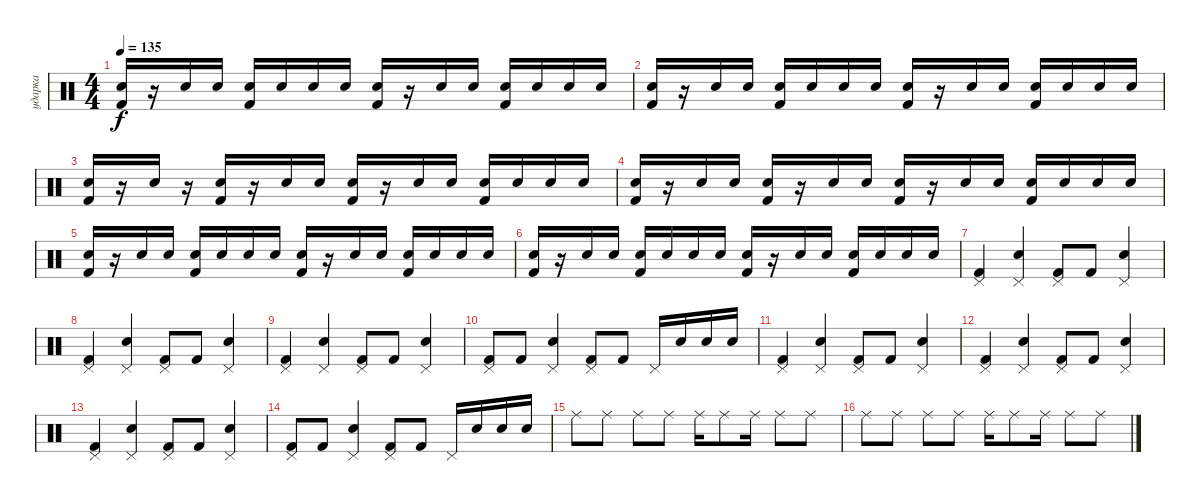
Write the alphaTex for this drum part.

\track ("ударка" "ударка") {instrument percussion}
\staff {score}
\articulation defaults
\ts (4 4)
\tempo 135
\clef neutral
\ks c
("Snare (hit) 2" "Kick (hit) 2").16{dy f} r.16 "Snare (hit) 2".16 "Snare (hit) 2".16 ("Snare (hit) 2" "Kick (hit) 2").16 "Snare (hit) 2".16 "Snare (hit) 2".16 "Snare (hit) 2".16 ("Snare (hit) 2" "Kick (hit) 2").16 r.16 "Snare (hit) 2".16 "Snare (hit) 2".16 ("Snare (hit) 2" "Kick (hit) 2").16 "Snare (hit) 2".16 "Snare (hit) 2".16 "Snare (hit) 2".16 |
("Snare (hit) 2" "Kick (hit) 2").16 r.16 "Snare (hit) 2".16 "Snare (hit) 2".16 ("Snare (hit) 2" "Kick (hit) 2").16 "Snare (hit) 2".16 "Snare (hit) 2".16 "Snare (hit) 2".16 ("Snare (hit) 2" "Kick (hit) 2").16 r.16 "Snare (hit) 2".16 "Snare (hit) 2".16 ("Snare (hit) 2" "Kick (hit) 2").16 "Snare (hit) 2".16 "Snare (hit) 2".16 "Snare (hit) 2".16 |
("Snare (hit) 2" "Kick (hit) 2").16 r.16 "Snare (hit) 2".16 r.16 ("Snare (hit) 2" "Kick (hit) 2").16 r.16 "Snare (hit) 2".16 "Snare (hit) 2".16 ("Snare (hit) 2" "Kick (hit) 2").16 r.16 "Snare (hit) 2".16 "Snare (hit) 2".16 ("Snare (hit) 2" "Kick (hit) 2").16 "Snare (hit) 2".16 "Snare (hit) 2".16 "Snare (hit) 2".16 |
("Snare (hit) 2" "Kick (hit) 2").16 r.16 "Snare (hit) 2".16 "Snare (hit) 2".16 ("Snare (hit) 2" "Kick (hit) 2").16 r.16 "Snare (hit) 2".16 "Snare (hit) 2".16 ("Snare (hit) 2" "Kick (hit) 2").16 r.16 "Snare (hit) 2".16 "Snare (hit) 2".16 ("Snare (hit) 2" "Kick (hit) 2").16 "Snare (hit) 2".16 "Snare (hit) 2".16 "Snare (hit) 2".16 |
("Snare (hit) 2" "Kick (hit) 2").16 r.16 "Snare (hit) 2".16 "Snare (hit) 2".16 ("Snare (hit) 2" "Kick (hit) 2").16 "Snare (hit) 2".16 "Snare (hit) 2".16 "Snare (hit) 2".16 ("Snare (hit) 2" "Kick (hit) 2").16 r.16 "Snare (hit) 2".16 "Snare (hit) 2".16 ("Snare (hit) 2" "Kick (hit) 2").16 "Snare (hit) 2".16 "Snare (hit) 2".16 "Snare (hit) 2".16 |
("Snare (hit) 2" "Kick (hit) 2").16 r.16 "Snare (hit) 2".16 "Snare (hit) 2".16 ("Snare (hit) 2" "Kick (hit) 2").16 "Snare (hit) 2".16 "Snare (hit) 2".16 "Snare (hit) 2".16 ("Snare (hit) 2" "Kick (hit) 2").16 r.16 "Snare (hit) 2".16 "Snare (hit) 2".16 ("Snare (hit) 2" "Kick (hit) 2").16 "Snare (hit) 2".16 "Snare (hit) 2".16 "Snare (hit) 2".16 |
("Pedal Hi-Hat (hit)" "Kick (hit) 2").4 ("Pedal Hi-Hat (hit)" "Snare (hit) 2").4 ("Pedal Hi-Hat (hit)" "Kick (hit) 2").8 "Kick (hit) 2".8 ("Pedal Hi-Hat (hit)" "Snare (hit) 2").4 |
("Pedal Hi-Hat (hit)" "Kick (hit) 2").4 ("Pedal Hi-Hat (hit)" "Snare (hit) 2").4 ("Pedal Hi-Hat (hit)" "Kick (hit) 2").8 "Kick (hit) 2".8 ("Pedal Hi-Hat (hit)" "Snare (hit) 2").4 |
("Pedal Hi-Hat (hit)" "Kick (hit) 2").4 ("Pedal Hi-Hat (hit)" "Snare (hit) 2").4 ("Pedal Hi-Hat (hit)" "Kick (hit) 2").8 "Kick (hit) 2".8 ("Pedal Hi-Hat (hit)" "Snare (hit) 2").4 |
("Pedal Hi-Hat (hit)" "Kick (hit) 2").8 "Kick (hit) 2".8 ("Pedal Hi-Hat (hit)" "Snare (hit) 2").4 ("Pedal Hi-Hat (hit)" "Kick (hit) 2").8 "Kick (hit) 2".8 "Pedal Hi-Hat (hit)".16 "Snare (hit) 2".16 "Snare (hit) 2".16 "Snare (hit) 2".16 |
("Pedal Hi-Hat (hit)" "Kick (hit) 2").4 ("Pedal Hi-Hat (hit)" "Snare (hit) 2").4 ("Pedal Hi-Hat (hit)" "Kick (hit) 2").8 "Kick (hit) 2".8 ("Pedal Hi-Hat (hit)" "Snare (hit) 2").4 |
("Pedal Hi-Hat (hit)" "Kick (hit) 2").4 ("Pedal Hi-Hat (hit)" "Snare (hit) 2").4 ("Pedal Hi-Hat (hit)" "Kick (hit) 2").8 "Kick (hit) 2".8 ("Pedal Hi-Hat (hit)" "Snare (hit) 2").4 |
("Pedal Hi-Hat (hit)" "Kick (hit) 2").4 ("Pedal Hi-Hat (hit)" "Snare (hit) 2").4 ("Pedal Hi-Hat (hit)" "Kick (hit) 2").8 "Kick (hit) 2".8 ("Pedal Hi-Hat (hit)" "Snare (hit) 2").4 |
("Pedal Hi-Hat (hit)" "Kick (hit) 2").8 "Kick (hit) 2".8 ("Pedal Hi-Hat (hit)" "Snare (hit) 2").4 ("Pedal Hi-Hat (hit)" "Kick (hit) 2").8 "Kick (hit) 2".8 "Pedal Hi-Hat (hit)".16 "Snare (hit) 2".16 "Snare (hit) 2".16 "Snare (hit) 2".16 |
"Ride (middle)".8 "Ride (middle)".8 "Ride (middle)".8 "Ride (middle)".8 "Ride (middle)".16 "Ride (middle)".8 "Ride (middle)".16 "Ride (middle)".8 "Ride (middle)".8 |
"Ride (middle)".8 "Ride (middle)".8 "Ride (middle)".8 "Ride (middle)".8 "Ride (middle)".16 "Ride (middle)".8 "Ride (middle)".16 "Ride (middle)".8 "Ride (middle)".8
